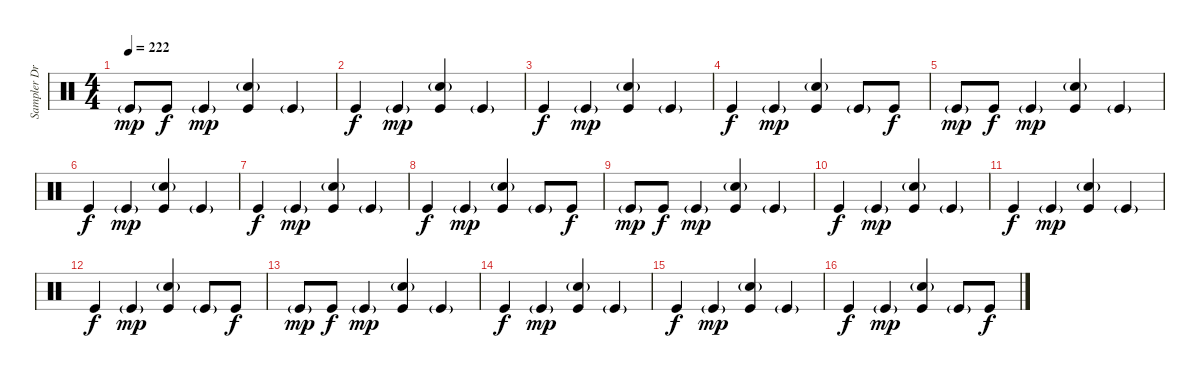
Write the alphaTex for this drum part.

\track ("Sampler Drums 1" "Sampler Dr") {instrument percussion}
\staff {score}
\articulation defaults
\ts (4 4)
\tempo 222
\clef neutral
\ks c "Kick (hit)"{g}.8{dy mp} "Kick (hit)".8{dy f} "Kick (hit)"{g}.4{dy mp}
("Kick (hit)" "Snare (hit) 2"{g}).4 "Kick (hit)"{g}.4 |
"Kick (hit)".4{dy f} "Kick (hit)"{g}.4{dy mp} ("Kick (hit)" "Snare (hit) 2"{g}).4 "Kick (hit)"{g}.4 |
"Kick (hit)".4{dy f} "Kick (hit)"{g}.4{dy mp} ("Kick (hit)" "Snare (hit) 2"{g}).4 "Kick (hit)"{g}.4 |
"Kick (hit)".4{dy f} "Kick (hit)"{g}.4{dy mp} ("Kick (hit)" "Snare (hit) 2"{g}).4 "Kick (hit)"{g}.8 "Kick (hit)".8{dy f} |
"Kick (hit)"{g}.8{dy mp} "Kick (hit)".8{dy f} "Kick (hit)"{g}.4{dy mp} ("Kick (hit)" "Snare (hit) 2"{g}).4 "Kick (hit)"{g}.4 |
"Kick (hit)".4{dy f} "Kick (hit)"{g}.4{dy mp} ("Kick (hit)" "Snare (hit) 2"{g}).4 "Kick (hit)"{g}.4 |
"Kick (hit)".4{dy f} "Kick (hit)"{g}.4{dy mp} ("Kick (hit)" "Snare (hit) 2"{g}).4 "Kick (hit)"{g}.4 |
"Kick (hit)".4{dy f} "Kick (hit)"{g}.4{dy mp} ("Kick (hit)" "Snare (hit) 2"{g}).4 "Kick (hit)"{g}.8 "Kick (hit)".8{dy f} |
"Kick (hit)"{g}.8{dy mp} "Kick (hit)".8{dy f} "Kick (hit)"{g}.4{dy mp} ("Kick (hit)" "Snare (hit) 2"{g}).4 "Kick (hit)"{g}.4 |
"Kick (hit)".4{dy f} "Kick (hit)"{g}.4{dy mp} ("Kick (hit)" "Snare (hit) 2"{g}).4 "Kick (hit)"{g}.4 |
"Kick (hit)".4{dy f} "Kick (hit)"{g}.4{dy mp} ("Kick (hit)" "Snare (hit) 2"{g}).4 "Kick (hit)"{g}.4 |
"Kick (hit)".4{dy f} "Kick (hit)"{g}.4{dy mp} ("Kick (hit)" "Snare (hit) 2"{g}).4 "Kick (hit)"{g}.8 "Kick (hit)".8{dy f} |
"Kick (hit)"{g}.8{dy mp} "Kick (hit)".8{dy f} "Kick (hit)"{g}.4{dy mp} ("Kick (hit)" "Snare (hit) 2"{g}).4 "Kick (hit)"{g}.4 |
"Kick (hit)".4{dy f} "Kick (hit)"{g}.4{dy mp} ("Kick (hit)" "Snare (hit) 2"{g}).4 "Kick (hit)"{g}.4 |
"Kick (hit)".4{dy f} "Kick (hit)"{g}.4{dy mp} ("Kick (hit)" "Snare (hit) 2"{g}).4 "Kick (hit)"{g}.4 |
"Kick (hit)".4{dy f} "Kick (hit)"{g}.4{dy mp} ("Kick (hit)" "Snare (hit) 2"{g}).4 "Kick (hit)"{g}.8 "Kick (hit)".8{dy f}
